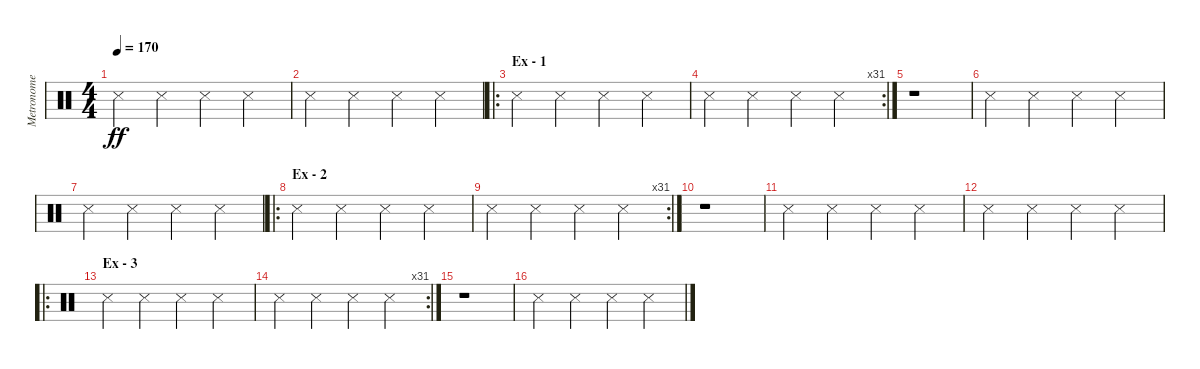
\track ("Metronome" "Metronome") {instrument percussion}
\staff {score}
\articulation defaults
\ts (4 4)
\tempo 170
\clef neutral
\ks c "Metronome (hit)".4{dy ff} "Metronome (hit)".4 "Metronome (hit)".4 "Metronome (hit)".4
|
"Metronome (hit)".4 "Metronome (hit)".4 "Metronome (hit)".4 "Metronome (hit)".4 |
\ro
\section ("" "Ex - 1")
"Metronome (hit)".4 "Metronome (hit)".4 "Metronome (hit)".4 "Metronome (hit)".4 |
\rc 31 "Metronome (hit)".4 "Metronome (hit)".4 "Metronome (hit)".4 "Metronome (hit)".4
|
r.1 |
"Metronome (hit)".4 "Metronome (hit)".4 "Metronome (hit)".4 "Metronome (hit)".4 |
"Metronome (hit)".4 "Metronome (hit)".4 "Metronome (hit)".4 "Metronome (hit)".4 |
\ro
\section ("" "Ex - 2")
"Metronome (hit)".4 "Metronome (hit)".4 "Metronome (hit)".4 "Metronome (hit)".4 |
\rc 31 "Metronome (hit)".4 "Metronome (hit)".4 "Metronome (hit)".4 "Metronome (hit)".4
|
r.1 |
"Metronome (hit)".4 "Metronome (hit)".4 "Metronome (hit)".4 "Metronome (hit)".4 |
"Metronome (hit)".4 "Metronome (hit)".4 "Metronome (hit)".4 "Metronome (hit)".4 |
\ro
\section ("" "Ex - 3")
"Metronome (hit)".4 "Metronome (hit)".4 "Metronome (hit)".4 "Metronome (hit)".4 |
\rc 31 "Metronome (hit)".4 "Metronome (hit)".4 "Metronome (hit)".4 "Metronome (hit)".4
|
r.1 |
"Metronome (hit)".4 "Metronome (hit)".4 "Metronome (hit)".4 "Metronome (hit)".4
